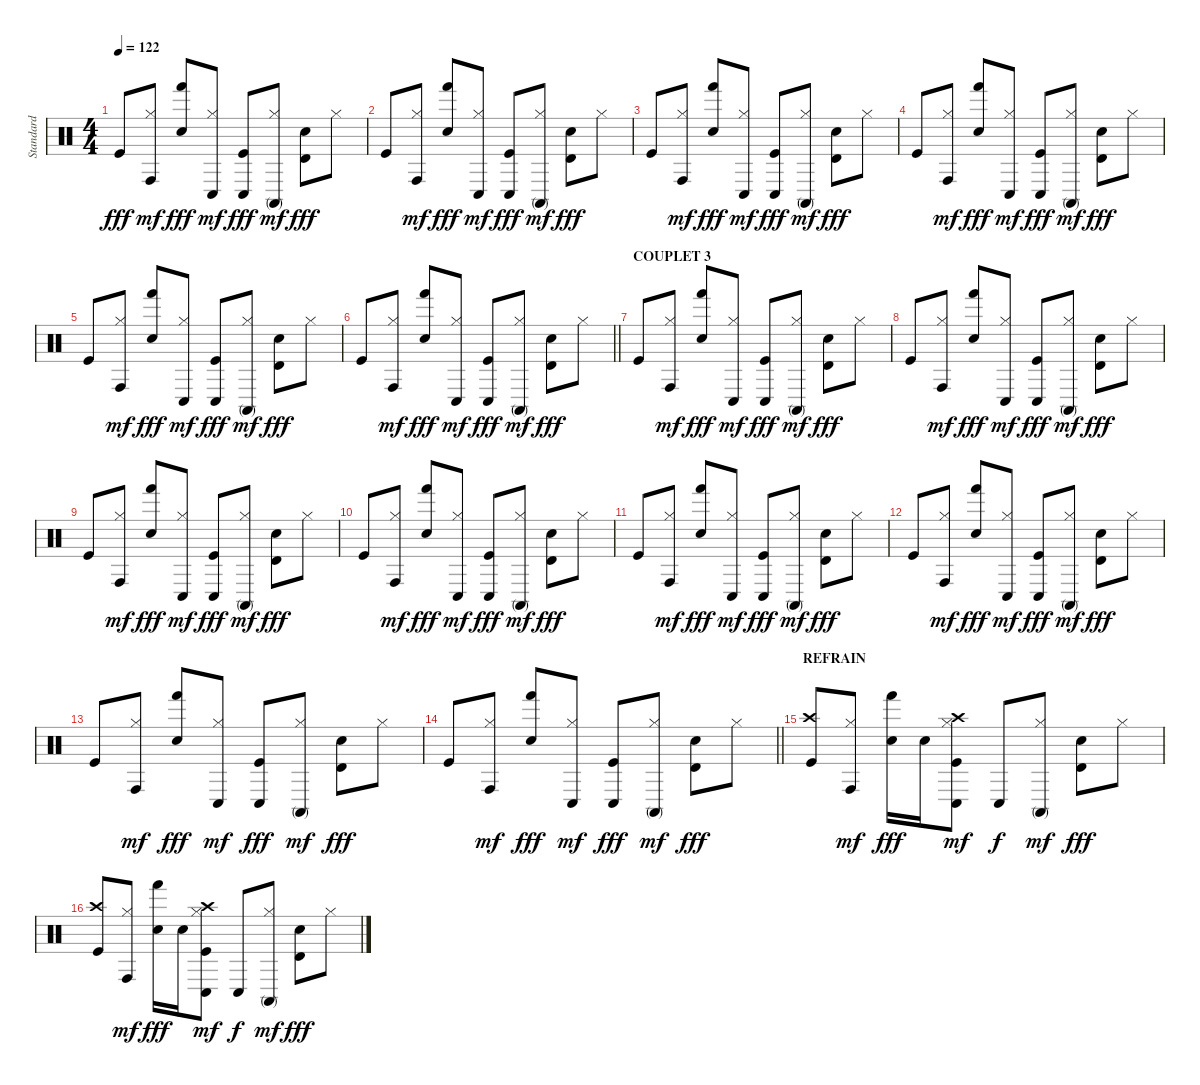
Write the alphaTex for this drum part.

\track ("Standard" "Standard") {instrument percussion}
\staff {score}
\articulation defaults
\ts (4 4)
\tempo 122
\clef neutral
\ks c "Kick (hit)".8{dy fff}
("Hi-Hat (closed)" "Conga high (hit)").8{dy mf} ("Electric Snare (hit)" "Hand (hit)").8{dy fff} ("Hi-Hat (closed)" "Conga low (hit)").8{dy mf} ("Kick (hit)" "Conga low (hit)").8{dy fff} ("Hi-Hat (closed)" "Conga high (mute)").8{dy mf} ("Electric Snare (hit)" "Timbale high (hit)").8{dy fff} "Hi-Hat (closed)".8 |
"Kick (hit)".8 ("Hi-Hat (closed)" "Conga high (hit)").8{dy mf} ("Electric Snare (hit)" "Hand (hit)").8{dy fff} ("Hi-Hat (closed)" "Conga low (hit)").8{dy mf} ("Kick (hit)" "Conga low (hit)").8{dy fff} ("Hi-Hat (closed)" "Conga high (mute)").8{dy mf} ("Electric Snare (hit)" "Timbale high (hit)").8{dy fff} "Hi-Hat (closed)".8 |
"Kick (hit)".8 ("Hi-Hat (closed)" "Conga high (hit)").8{dy mf} ("Electric Snare (hit)" "Hand (hit)").8{dy fff} ("Hi-Hat (closed)" "Conga low (hit)").8{dy mf} ("Kick (hit)" "Conga low (hit)").8{dy fff} ("Hi-Hat (closed)" "Conga high (mute)").8{dy mf} ("Electric Snare (hit)" "Timbale high (hit)").8{dy fff} "Hi-Hat (closed)".8 |
"Kick (hit)".8 ("Hi-Hat (closed)" "Conga high (hit)").8{dy mf} ("Electric Snare (hit)" "Hand (hit)").8{dy fff} ("Hi-Hat (closed)" "Conga low (hit)").8{dy mf} ("Kick (hit)" "Conga low (hit)").8{dy fff} ("Hi-Hat (closed)" "Conga high (mute)").8{dy mf} ("Electric Snare (hit)" "Timbale high (hit)").8{dy fff} "Hi-Hat (closed)".8 |
"Kick (hit)".8 ("Hi-Hat (closed)" "Conga high (hit)").8{dy mf} ("Electric Snare (hit)" "Hand (hit)").8{dy fff} ("Hi-Hat (closed)" "Conga low (hit)").8{dy mf} ("Kick (hit)" "Conga low (hit)").8{dy fff} ("Hi-Hat (closed)" "Conga high (mute)").8{dy mf} ("Electric Snare (hit)" "Timbale high (hit)").8{dy fff} "Hi-Hat (closed)".8 |
\barLineRight lightlight "Kick (hit)".8
("Hi-Hat (closed)" "Conga high (hit)").8{dy mf} ("Electric Snare (hit)" "Hand (hit)").8{dy fff} ("Hi-Hat (closed)" "Conga low (hit)").8{dy mf} ("Kick (hit)" "Conga low (hit)").8{dy fff} ("Hi-Hat (closed)" "Conga high (mute)").8{dy mf} ("Electric Snare (hit)" "Timbale high (hit)").8{dy fff} "Hi-Hat (closed)".8 |
\section ("" "COUPLET 3")
"Kick (hit)".8 ("Hi-Hat (closed)" "Conga high (hit)").8{dy mf} ("Electric Snare (hit)" "Hand (hit)").8{dy fff} ("Hi-Hat (closed)" "Conga low (hit)").8{dy mf} ("Kick (hit)" "Conga low (hit)").8{dy fff} ("Hi-Hat (closed)" "Conga high (mute)").8{dy mf} ("Electric Snare (hit)" "Timbale high (hit)").8{dy fff} "Hi-Hat (closed)".8 |
"Kick (hit)".8 ("Hi-Hat (closed)" "Conga high (hit)").8{dy mf} ("Electric Snare (hit)" "Hand (hit)").8{dy fff} ("Hi-Hat (closed)" "Conga low (hit)").8{dy mf} ("Kick (hit)" "Conga low (hit)").8{dy fff} ("Hi-Hat (closed)" "Conga high (mute)").8{dy mf} ("Electric Snare (hit)" "Timbale high (hit)").8{dy fff} "Hi-Hat (closed)".8 |
"Kick (hit)".8 ("Hi-Hat (closed)" "Conga high (hit)").8{dy mf} ("Electric Snare (hit)" "Hand (hit)").8{dy fff} ("Hi-Hat (closed)" "Conga low (hit)").8{dy mf} ("Kick (hit)" "Conga low (hit)").8{dy fff} ("Hi-Hat (closed)" "Conga high (mute)").8{dy mf} ("Electric Snare (hit)" "Timbale high (hit)").8{dy fff} "Hi-Hat (closed)".8 |
"Kick (hit)".8 ("Hi-Hat (closed)" "Conga high (hit)").8{dy mf} ("Electric Snare (hit)" "Hand (hit)").8{dy fff} ("Hi-Hat (closed)" "Conga low (hit)").8{dy mf} ("Kick (hit)" "Conga low (hit)").8{dy fff} ("Hi-Hat (closed)" "Conga high (mute)").8{dy mf} ("Electric Snare (hit)" "Timbale high (hit)").8{dy fff} "Hi-Hat (closed)".8 |
"Kick (hit)".8 ("Hi-Hat (closed)" "Conga high (hit)").8{dy mf} ("Electric Snare (hit)" "Hand (hit)").8{dy fff} ("Hi-Hat (closed)" "Conga low (hit)").8{dy mf} ("Kick (hit)" "Conga low (hit)").8{dy fff} ("Hi-Hat (closed)" "Conga high (mute)").8{dy mf} ("Electric Snare (hit)" "Timbale high (hit)").8{dy fff} "Hi-Hat (closed)".8 |
"Kick (hit)".8 ("Hi-Hat (closed)" "Conga high (hit)").8{dy mf} ("Electric Snare (hit)" "Hand (hit)").8{dy fff} ("Hi-Hat (closed)" "Conga low (hit)").8{dy mf} ("Kick (hit)" "Conga low (hit)").8{dy fff} ("Hi-Hat (closed)" "Conga high (mute)").8{dy mf} ("Electric Snare (hit)" "Timbale high (hit)").8{dy fff} "Hi-Hat (closed)".8 |
"Kick (hit)".8 ("Hi-Hat (closed)" "Conga high (hit)").8{dy mf} ("Electric Snare (hit)" "Hand (hit)").8{dy fff} ("Hi-Hat (closed)" "Conga low (hit)").8{dy mf} ("Kick (hit)" "Conga low (hit)").8{dy fff} ("Hi-Hat (closed)" "Conga high (mute)").8{dy mf} ("Electric Snare (hit)" "Timbale high (hit)").8{dy fff} "Hi-Hat (closed)".8 |
\barLineRight lightlight "Kick (hit)".8
("Hi-Hat (closed)" "Conga high (hit)").8{dy mf} ("Electric Snare (hit)" "Hand (hit)").8{dy fff} ("Hi-Hat (closed)" "Conga low (hit)").8{dy mf} ("Kick (hit)" "Conga low (hit)").8{dy fff} ("Hi-Hat (closed)" "Conga high (mute)").8{dy mf} ("Electric Snare (hit)" "Timbale high (hit)").8{dy fff} "Hi-Hat (closed)".8 |
\section ("" "REFRAIN")
("Kick (hit)" "Crash high (hit)").8 ("Hi-Hat (closed)" "Conga high (hit)").8{dy mf} ("Electric Snare (hit)" "Hand (hit)").16{dy fff} "Electric Snare (hit)".16 ("Kick (hit)" "Hi-Hat (closed)" "Crash high (hit)" "Conga low (hit)").8{dy mf} "Conga low (hit)".8{dy f} ("Hi-Hat (closed)" "Conga high (mute)").8{dy mf} ("Electric Snare (hit)" "Timbale high (hit)").8{dy fff} "Hi-Hat (closed)".8 |
("Kick (hit)" "Crash high (hit)").8 ("Hi-Hat (closed)" "Conga high (hit)").8{dy mf} ("Electric Snare (hit)" "Hand (hit)").16{dy fff} "Electric Snare (hit)".16 ("Kick (hit)" "Hi-Hat (closed)" "Crash high (hit)" "Conga low (hit)").8{dy mf} "Conga low (hit)".8{dy f} ("Hi-Hat (closed)" "Conga high (mute)").8{dy mf} ("Electric Snare (hit)" "Timbale high (hit)").8{dy fff} "Hi-Hat (closed)".8
